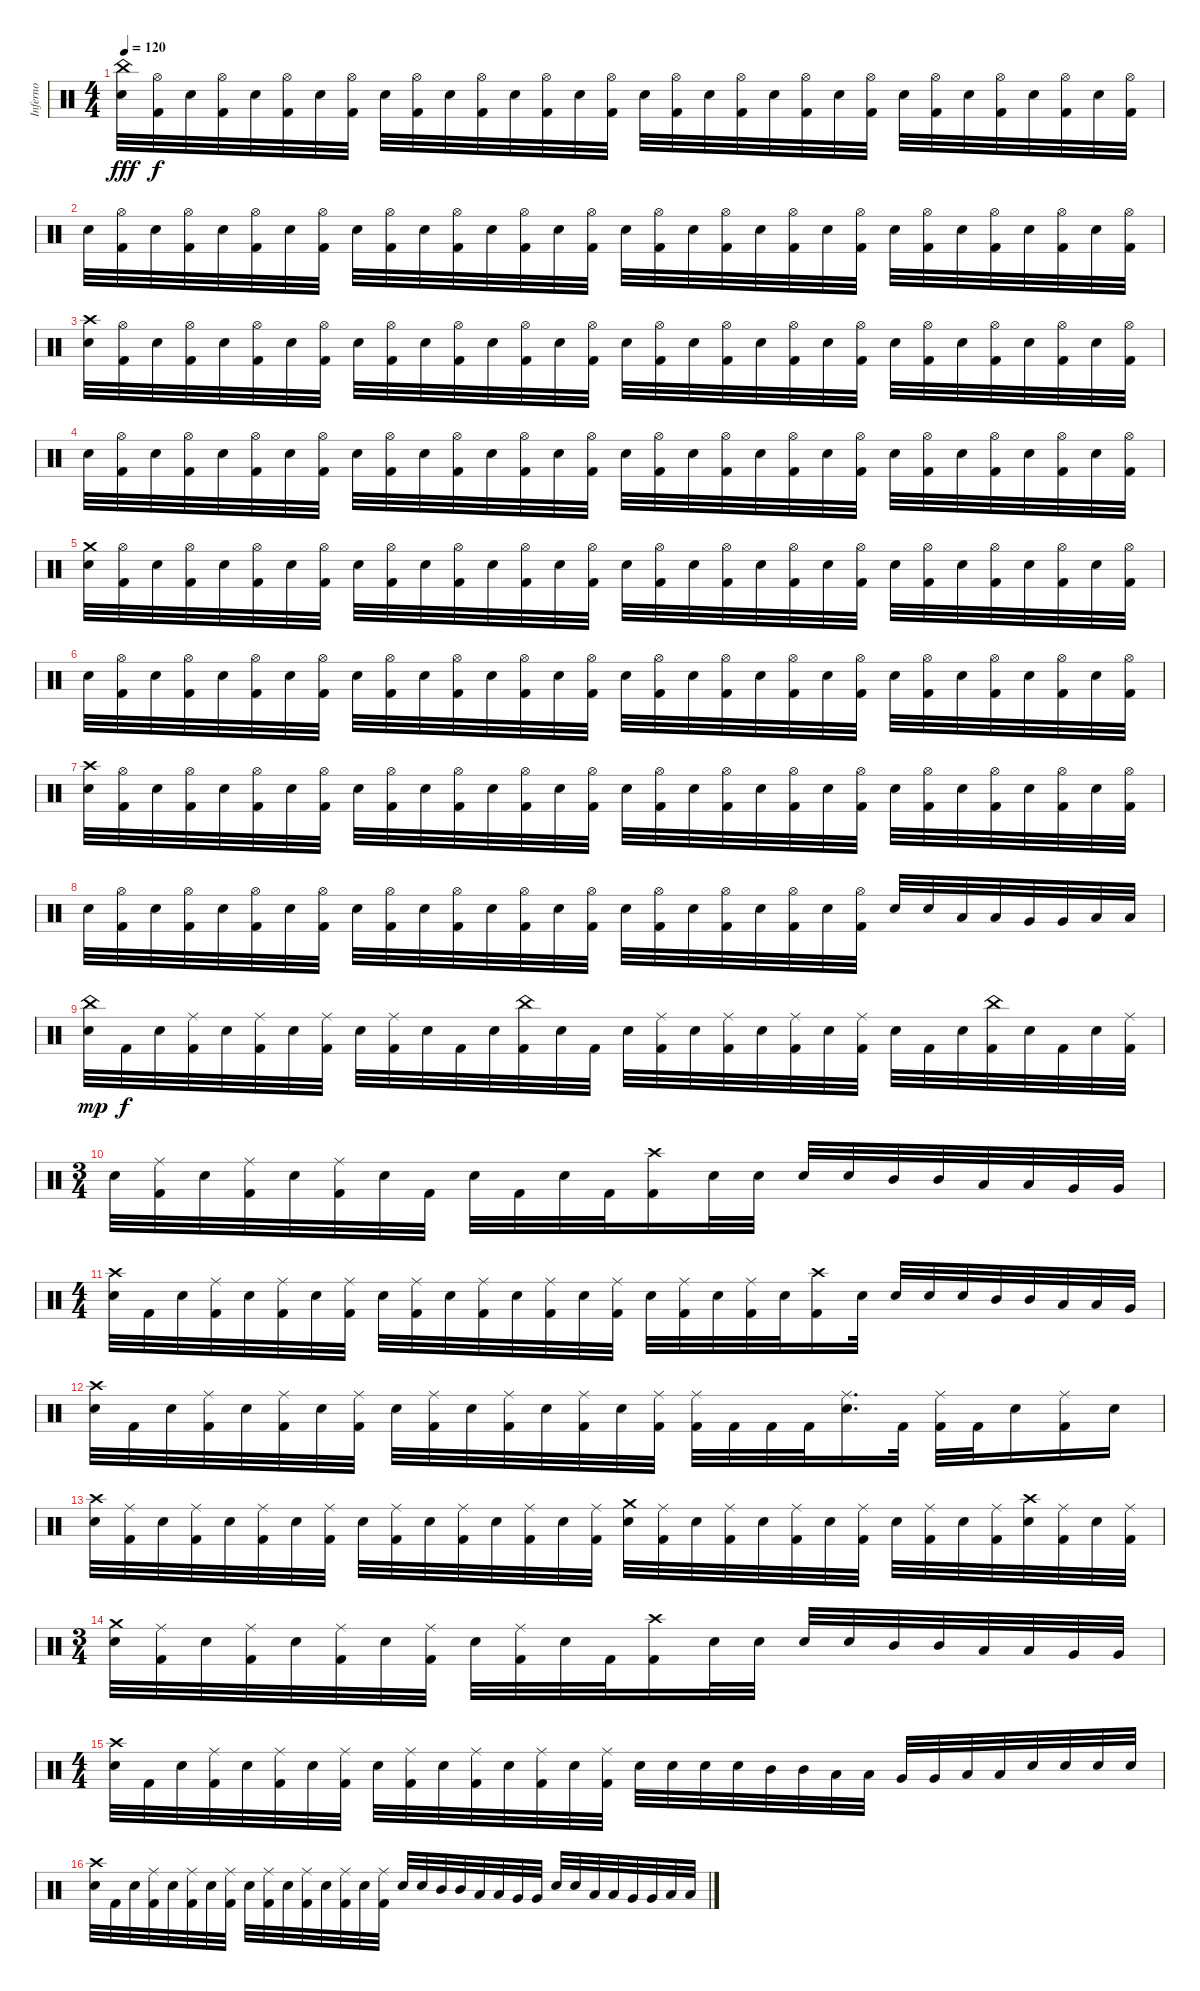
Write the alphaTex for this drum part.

\track ("Inferno" "Inferno") {instrument percussion}
\staff {score}
\articulation defaults
\ts (4 4)
\tempo 120
\clef neutral
\ks c
("China (hit)" "Electric Snare (hit)").32{dy fff} ("Hi-Hat (open)" "Kick (hit) 2").32{dy f} "Electric Snare (hit)".32 ("Hi-Hat (open)" "Kick (hit) 2").32 "Electric Snare (hit)".32 ("Hi-Hat (open)" "Kick (hit) 2").32 "Electric Snare (hit)".32 ("Hi-Hat (open)" "Kick (hit) 2").32 "Electric Snare (hit)".32 ("Hi-Hat (open)" "Kick (hit) 2").32 "Electric Snare (hit)".32 ("Hi-Hat (open)" "Kick (hit) 2").32 "Electric Snare (hit)".32 ("Hi-Hat (open)" "Kick (hit) 2").32 "Electric Snare (hit)".32 ("Hi-Hat (open)" "Kick (hit) 2").32 "Electric Snare (hit)".32 ("Hi-Hat (open)" "Kick (hit) 2").32 "Electric Snare (hit)".32 ("Hi-Hat (open)" "Kick (hit) 2").32 "Electric Snare (hit)".32 ("Hi-Hat (open)" "Kick (hit) 2").32 "Electric Snare (hit)".32 ("Hi-Hat (open)" "Kick (hit) 2").32 "Electric Snare (hit)".32 ("Hi-Hat (open)" "Kick (hit) 2").32 "Electric Snare (hit)".32 ("Hi-Hat (open)" "Kick (hit) 2").32 "Electric Snare (hit)".32 ("Hi-Hat (open)" "Kick (hit) 2").32 "Electric Snare (hit)".32 ("Hi-Hat (open)" "Kick (hit) 2").32 |
"Electric Snare (hit)".32 ("Hi-Hat (open)" "Kick (hit) 2").32 "Electric Snare (hit)".32 ("Hi-Hat (open)" "Kick (hit) 2").32 "Electric Snare (hit)".32 ("Hi-Hat (open)" "Kick (hit) 2").32 "Electric Snare (hit)".32 ("Hi-Hat (open)" "Kick (hit) 2").32 "Electric Snare (hit)".32 ("Hi-Hat (open)" "Kick (hit) 2").32 "Electric Snare (hit)".32 ("Hi-Hat (open)" "Kick (hit) 2").32 "Electric Snare (hit)".32 ("Hi-Hat (open)" "Kick (hit) 2").32 "Electric Snare (hit)".32 ("Hi-Hat (open)" "Kick (hit) 2").32 "Electric Snare (hit)".32 ("Hi-Hat (open)" "Kick (hit) 2").32 "Electric Snare (hit)".32 ("Hi-Hat (open)" "Kick (hit) 2").32 "Electric Snare (hit)".32 ("Hi-Hat (open)" "Kick (hit) 2").32 "Electric Snare (hit)".32 ("Hi-Hat (open)" "Kick (hit) 2").32 "Electric Snare (hit)".32 ("Hi-Hat (open)" "Kick (hit) 2").32 "Electric Snare (hit)".32 ("Hi-Hat (open)" "Kick (hit) 2").32 "Electric Snare (hit)".32 ("Hi-Hat (open)" "Kick (hit) 2").32 "Electric Snare (hit)".32 ("Hi-Hat (open)" "Kick (hit) 2").32 |
("Crash high (hit)" "Electric Snare (hit)").32 ("Hi-Hat (open)" "Kick (hit) 2").32 "Electric Snare (hit)".32 ("Hi-Hat (open)" "Kick (hit) 2").32 "Electric Snare (hit)".32 ("Hi-Hat (open)" "Kick (hit) 2").32 "Electric Snare (hit)".32 ("Hi-Hat (open)" "Kick (hit) 2").32 "Electric Snare (hit)".32 ("Hi-Hat (open)" "Kick (hit) 2").32 "Electric Snare (hit)".32 ("Hi-Hat (open)" "Kick (hit) 2").32 "Electric Snare (hit)".32 ("Hi-Hat (open)" "Kick (hit) 2").32 "Electric Snare (hit)".32 ("Hi-Hat (open)" "Kick (hit) 2").32 "Electric Snare (hit)".32 ("Hi-Hat (open)" "Kick (hit) 2").32 "Electric Snare (hit)".32 ("Hi-Hat (open)" "Kick (hit) 2").32 "Electric Snare (hit)".32 ("Hi-Hat (open)" "Kick (hit) 2").32 "Electric Snare (hit)".32 ("Hi-Hat (open)" "Kick (hit) 2").32 "Electric Snare (hit)".32 ("Hi-Hat (open)" "Kick (hit) 2").32 "Electric Snare (hit)".32 ("Hi-Hat (open)" "Kick (hit) 2").32 "Electric Snare (hit)".32 ("Hi-Hat (open)" "Kick (hit) 2").32 "Electric Snare (hit)".32 ("Hi-Hat (open)" "Kick (hit) 2").32 |
"Electric Snare (hit)".32 ("Hi-Hat (open)" "Kick (hit) 2").32 "Electric Snare (hit)".32 ("Hi-Hat (open)" "Kick (hit) 2").32 "Electric Snare (hit)".32 ("Hi-Hat (open)" "Kick (hit) 2").32 "Electric Snare (hit)".32 ("Hi-Hat (open)" "Kick (hit) 2").32 "Electric Snare (hit)".32 ("Hi-Hat (open)" "Kick (hit) 2").32 "Electric Snare (hit)".32 ("Hi-Hat (open)" "Kick (hit) 2").32 "Electric Snare (hit)".32 ("Hi-Hat (open)" "Kick (hit) 2").32 "Electric Snare (hit)".32 ("Hi-Hat (open)" "Kick (hit) 2").32 "Electric Snare (hit)".32 ("Hi-Hat (open)" "Kick (hit) 2").32 "Electric Snare (hit)".32 ("Hi-Hat (open)" "Kick (hit) 2").32 "Electric Snare (hit)".32 ("Hi-Hat (open)" "Kick (hit) 2").32 "Electric Snare (hit)".32 ("Hi-Hat (open)" "Kick (hit) 2").32 "Electric Snare (hit)".32 ("Hi-Hat (open)" "Kick (hit) 2").32 "Electric Snare (hit)".32 ("Hi-Hat (open)" "Kick (hit) 2").32 "Electric Snare (hit)".32 ("Hi-Hat (open)" "Kick (hit) 2").32 "Electric Snare (hit)".32 ("Hi-Hat (open)" "Kick (hit) 2").32 |
("Crash medium (hit)" "Electric Snare (hit)").32 ("Hi-Hat (open)" "Kick (hit) 2").32 "Electric Snare (hit)".32 ("Hi-Hat (open)" "Kick (hit) 2").32 "Electric Snare (hit)".32 ("Hi-Hat (open)" "Kick (hit) 2").32 "Electric Snare (hit)".32 ("Hi-Hat (open)" "Kick (hit) 2").32 "Electric Snare (hit)".32 ("Hi-Hat (open)" "Kick (hit) 2").32 "Electric Snare (hit)".32 ("Hi-Hat (open)" "Kick (hit) 2").32 "Electric Snare (hit)".32 ("Hi-Hat (open)" "Kick (hit) 2").32 "Electric Snare (hit)".32 ("Hi-Hat (open)" "Kick (hit) 2").32 "Electric Snare (hit)".32 ("Hi-Hat (open)" "Kick (hit) 2").32 "Electric Snare (hit)".32 ("Hi-Hat (open)" "Kick (hit) 2").32 "Electric Snare (hit)".32 ("Hi-Hat (open)" "Kick (hit) 2").32 "Electric Snare (hit)".32 ("Hi-Hat (open)" "Kick (hit) 2").32 "Electric Snare (hit)".32 ("Hi-Hat (open)" "Kick (hit) 2").32 "Electric Snare (hit)".32 ("Hi-Hat (open)" "Kick (hit) 2").32 "Electric Snare (hit)".32 ("Hi-Hat (open)" "Kick (hit) 2").32 "Electric Snare (hit)".32 ("Hi-Hat (open)" "Kick (hit) 2").32 |
"Electric Snare (hit)".32 ("Hi-Hat (open)" "Kick (hit) 2").32 "Electric Snare (hit)".32 ("Hi-Hat (open)" "Kick (hit) 2").32 "Electric Snare (hit)".32 ("Hi-Hat (open)" "Kick (hit) 2").32 "Electric Snare (hit)".32 ("Hi-Hat (open)" "Kick (hit) 2").32 "Electric Snare (hit)".32 ("Hi-Hat (open)" "Kick (hit) 2").32 "Electric Snare (hit)".32 ("Hi-Hat (open)" "Kick (hit) 2").32 "Electric Snare (hit)".32 ("Hi-Hat (open)" "Kick (hit) 2").32 "Electric Snare (hit)".32 ("Hi-Hat (open)" "Kick (hit) 2").32 "Electric Snare (hit)".32 ("Hi-Hat (open)" "Kick (hit) 2").32 "Electric Snare (hit)".32 ("Hi-Hat (open)" "Kick (hit) 2").32 "Electric Snare (hit)".32 ("Hi-Hat (open)" "Kick (hit) 2").32 "Electric Snare (hit)".32 ("Hi-Hat (open)" "Kick (hit) 2").32 "Electric Snare (hit)".32 ("Hi-Hat (open)" "Kick (hit) 2").32 "Electric Snare (hit)".32 ("Hi-Hat (open)" "Kick (hit) 2").32 "Electric Snare (hit)".32 ("Hi-Hat (open)" "Kick (hit) 2").32 "Electric Snare (hit)".32 ("Hi-Hat (open)" "Kick (hit) 2").32 |
("Crash high (hit)" "Electric Snare (hit)").32 ("Hi-Hat (open)" "Kick (hit) 2").32 "Electric Snare (hit)".32 ("Hi-Hat (open)" "Kick (hit) 2").32 "Electric Snare (hit)".32 ("Hi-Hat (open)" "Kick (hit) 2").32 "Electric Snare (hit)".32 ("Hi-Hat (open)" "Kick (hit) 2").32 "Electric Snare (hit)".32 ("Hi-Hat (open)" "Kick (hit) 2").32 "Electric Snare (hit)".32 ("Hi-Hat (open)" "Kick (hit) 2").32 "Electric Snare (hit)".32 ("Hi-Hat (open)" "Kick (hit) 2").32 "Electric Snare (hit)".32 ("Hi-Hat (open)" "Kick (hit) 2").32 "Electric Snare (hit)".32 ("Hi-Hat (open)" "Kick (hit) 2").32 "Electric Snare (hit)".32 ("Hi-Hat (open)" "Kick (hit) 2").32 "Electric Snare (hit)".32 ("Hi-Hat (open)" "Kick (hit) 2").32 "Electric Snare (hit)".32 ("Hi-Hat (open)" "Kick (hit) 2").32 "Electric Snare (hit)".32 ("Hi-Hat (open)" "Kick (hit) 2").32 "Electric Snare (hit)".32 ("Hi-Hat (open)" "Kick (hit) 2").32 "Electric Snare (hit)".32 ("Hi-Hat (open)" "Kick (hit) 2").32 "Electric Snare (hit)".32 ("Hi-Hat (open)" "Kick (hit) 2").32 |
"Electric Snare (hit)".32 ("Hi-Hat (open)" "Kick (hit) 2").32 "Electric Snare (hit)".32 ("Hi-Hat (open)" "Kick (hit) 2").32 "Electric Snare (hit)".32 ("Hi-Hat (open)" "Kick (hit) 2").32 "Electric Snare (hit)".32 ("Hi-Hat (open)" "Kick (hit) 2").32 "Electric Snare (hit)".32 ("Hi-Hat (open)" "Kick (hit) 2").32 "Electric Snare (hit)".32 ("Hi-Hat (open)" "Kick (hit) 2").32 "Electric Snare (hit)".32 ("Hi-Hat (open)" "Kick (hit) 2").32 "Electric Snare (hit)".32 ("Hi-Hat (open)" "Kick (hit) 2").32 "Electric Snare (hit)".32 ("Hi-Hat (open)" "Kick (hit) 2").32 "Electric Snare (hit)".32 ("Hi-Hat (open)" "Kick (hit) 2").32 "Electric Snare (hit)".32 ("Hi-Hat (open)" "Kick (hit) 2").32 "Electric Snare (hit)".32 ("Hi-Hat (open)" "Kick (hit) 2").32 "Electric Snare (hit)".32 "Electric Snare (hit)".32 "Low Tom (hit)".32 "Low Tom (hit)".32 "Very Low Tom (hit)".32 "Very Low Tom (hit)".32 "Low Floor Tom (hit)".32 "Low Floor Tom (hit)".32 |
("China (hit)" "Electric Snare (hit)").32{dy mp} "Kick (hit) 2".32{dy f} "Electric Snare (hit)".32 ("Ride (middle)" "Kick (hit) 2").32 "Electric Snare (hit)".32 ("Ride (middle)" "Kick (hit) 2").32 "Electric Snare (hit)".32 ("Ride (middle)" "Kick (hit) 2").32 "Electric Snare (hit)".32 ("Ride (middle)" "Kick (hit) 2").32 "Electric Snare (hit)".32 "Kick (hit) 2".32 "Electric Snare (hit)".32 ("China (hit)" "Kick (hit) 2").32 "Electric Snare (hit)".32 "Kick (hit) 2".32 "Electric Snare (hit)".32 ("Ride (middle)" "Kick (hit) 2").32 "Electric Snare (hit)".32 ("Ride (middle)" "Kick (hit) 2").32 "Electric Snare (hit)".32 ("Ride (middle)" "Kick (hit) 2").32 "Electric Snare (hit)".32 ("Ride (middle)" "Kick (hit) 2").32 "Electric Snare (hit)".32 "Kick (hit) 2".32 "Electric Snare (hit)".32 ("China (hit)" "Kick (hit) 2").32 "Electric Snare (hit)".32 "Kick (hit) 2".32 "Electric Snare (hit)".32 ("Ride (middle)" "Kick (hit) 2").32 |
\ts (3 4)
"Electric Snare (hit)".32 ("Ride (middle)" "Kick (hit) 2").32 "Electric Snare (hit)".32 ("Ride (middle)" "Kick (hit) 2").32 "Electric Snare (hit)".32 ("Ride (middle)" "Kick (hit) 2").32 "Electric Snare (hit)".32 "Kick (hit) 2".32 "Electric Snare (hit)".32 "Kick (hit) 2".32 "Electric Snare (hit)".32 "Kick (hit) 2".32 ("Crash high (hit)" "Kick (hit) 2").16 "Electric Snare (hit)".32 "Electric Snare (hit)".32 "Electric Snare (hit)".32 "Electric Snare (hit)".32 "Mid Tom (hit)".32 "Mid Tom (hit)".32 "Low Tom (hit)".32 "Low Tom (hit)".32 "Very Low Tom (hit)".32 "Very Low Tom (hit)".32 |
\ts (4 4)
("Crash high (hit)" "Electric Snare (hit)").32 "Kick (hit) 2".32 "Electric Snare (hit)".32 ("Ride (middle)" "Kick (hit) 2").32 "Electric Snare (hit)".32 ("Ride (middle)" "Kick (hit) 2").32 "Electric Snare (hit)".32 ("Ride (middle)" "Kick (hit) 2").32 "Electric Snare (hit)".32 ("Ride (middle)" "Kick (hit) 2").32 "Electric Snare (hit)".32 ("Ride (middle)" "Kick (hit) 2").32 "Electric Snare (hit)".32 ("Ride (middle)" "Kick (hit) 2").32 "Electric Snare (hit)".32 ("Ride (middle)" "Kick (hit) 2").32 "Electric Snare (hit)".32 ("Ride (middle)" "Kick (hit) 2").32 "Electric Snare (hit)".32 ("Ride (middle)" "Kick (hit) 2").32 "Electric Snare (hit)".32 ("Crash high (hit)" "Kick (hit) 2").16 "Electric Snare (hit)".32 "Electric Snare (hit)".32 "Electric Snare (hit)".32 "Electric Snare (hit)".32 "Mid Tom (hit)".32 "Mid Tom (hit)".32 "Low Tom (hit)".32 "Low Tom (hit)".32 "Very Low Tom (hit)".32 |
("Crash high (hit)" "Electric Snare (hit)").32 "Kick (hit) 2".32 "Electric Snare (hit)".32 ("Ride (middle)" "Kick (hit) 2").32 "Electric Snare (hit)".32 ("Ride (middle)" "Kick (hit) 2").32 "Electric Snare (hit)".32 ("Ride (middle)" "Kick (hit) 2").32 "Electric Snare (hit)".32 ("Ride (middle)" "Kick (hit) 2").32 "Electric Snare (hit)".32 ("Ride (middle)" "Kick (hit) 2").32 "Electric Snare (hit)".32 ("Ride (middle)" "Kick (hit) 2").32 "Electric Snare (hit)".32 ("Ride (middle)" "Kick (hit) 2").32 ("Ride (middle)" "Kick (hit) 2").32 "Kick (hit) 2".32 "Kick (hit) 2".32 "Kick (hit) 2".32 ("Ride (middle)" "Electric Snare (hit)").16{d} "Kick (hit) 2".32 ("Ride (middle)" "Kick (hit) 2").32 "Kick (hit) 2".32 "Electric Snare (hit)".16 ("Ride (middle)" "Kick (hit) 2").16 "Electric Snare (hit)".16 |
("Crash high (hit)" "Electric Snare (hit)").32 ("Ride (middle)" "Kick (hit) 2").32 "Electric Snare (hit)".32 ("Ride (middle)" "Kick (hit) 2").32 "Electric Snare (hit)".32 ("Ride (middle)" "Kick (hit) 2").32 "Electric Snare (hit)".32 ("Ride (middle)" "Kick (hit) 2").32 "Electric Snare (hit)".32 ("Ride (middle)" "Kick (hit) 2").32 "Electric Snare (hit)".32 ("Ride (middle)" "Kick (hit) 2").32 "Electric Snare (hit)".32 ("Ride (middle)" "Kick (hit) 2").32 "Electric Snare (hit)".32 ("Ride (middle)" "Kick (hit) 2").32 ("Crash medium (hit)" "Electric Snare (hit)").32 ("Ride (middle)" "Kick (hit) 2").32 "Electric Snare (hit)".32 ("Ride (middle)" "Kick (hit) 2").32 "Electric Snare (hit)".32 ("Ride (middle)" "Kick (hit) 2").32 "Electric Snare (hit)".32 ("Ride (middle)" "Kick (hit) 2").32 "Electric Snare (hit)".32 ("Ride (middle)" "Kick (hit) 2").32 "Electric Snare (hit)".32 ("Ride (middle)" "Kick (hit) 2").32 ("Crash high (hit)" "Electric Snare (hit)").32 ("Ride (middle)" "Kick (hit) 2").32 "Electric Snare (hit)".32 ("Ride (middle)" "Kick (hit) 2").32 |
\ts (3 4)
("Crash medium (hit)" "Electric Snare (hit)").32 ("Ride (middle)" "Kick (hit) 2").32 "Electric Snare (hit)".32 ("Ride (middle)" "Kick (hit) 2").32 "Electric Snare (hit)".32 ("Ride (middle)" "Kick (hit) 2").32 "Electric Snare (hit)".32 ("Ride (middle)" "Kick (hit) 2").32 "Electric Snare (hit)".32 ("Ride (middle)" "Kick (hit) 2").32 "Electric Snare (hit)".32 "Kick (hit) 2".32 ("Crash high (hit)" "Kick (hit) 2").16 "Electric Snare (hit)".32 "Electric Snare (hit)".32 "Electric Snare (hit)".32 "Electric Snare (hit)".32 "Mid Tom (hit)".32 "Mid Tom (hit)".32 "Low Tom (hit)".32 "Low Tom (hit)".32 "Very Low Tom (hit)".32 "Very Low Tom (hit)".32 |
\ts (4 4)
("Crash high (hit)" "Electric Snare (hit)").32 "Kick (hit) 2".32 "Electric Snare (hit)".32 ("Ride (middle)" "Kick (hit) 2").32 "Electric Snare (hit)".32 ("Ride (middle)" "Kick (hit) 2").32 "Electric Snare (hit)".32 ("Ride (middle)" "Kick (hit) 2").32 "Electric Snare (hit)".32 ("Ride (middle)" "Kick (hit) 2").32 "Electric Snare (hit)".32 ("Ride (middle)" "Kick (hit) 2").32 "Electric Snare (hit)".32 ("Ride (middle)" "Kick (hit) 2").32 "Electric Snare (hit)".32 ("Ride (middle)" "Kick (hit) 2").32 "Electric Snare (hit)".32 "Electric Snare (hit)".32 "Electric Snare (hit)".32 "Electric Snare (hit)".32 "Mid Tom (hit)".32 "Mid Tom (hit)".32 "Low Tom (hit)".32 "Low Tom (hit)".32 "Very Low Tom (hit)".32 "Very Low Tom (hit)".32 "Low Floor Tom (hit)".32 "Low Floor Tom (hit)".32 "Electric Snare (hit)".32 "Electric Snare (hit)".32 "Electric Snare (hit)".32 "Electric Snare (hit)".32 |
("Crash high (hit)" "Electric Snare (hit)").32 "Kick (hit) 2".32 "Electric Snare (hit)".32 ("Ride (middle)" "Kick (hit) 2").32 "Electric Snare (hit)".32 ("Ride (middle)" "Kick (hit) 2").32 "Electric Snare (hit)".32 ("Ride (middle)" "Kick (hit) 2").32 "Electric Snare (hit)".32 ("Ride (middle)" "Kick (hit) 2").32 "Electric Snare (hit)".32 ("Ride (middle)" "Kick (hit) 2").32 "Electric Snare (hit)".32 ("Ride (middle)" "Kick (hit) 2").32 "Electric Snare (hit)".32 ("Ride (middle)" "Kick (hit) 2").32 "Electric Snare (hit)".32 "Electric Snare (hit)".32 "Mid Tom (hit)".32 "Mid Tom (hit)".32 "Low Tom (hit)".32 "Low Tom (hit)".32 "Very Low Tom (hit)".32 "Very Low Tom (hit)".32 "Electric Snare (hit)".32 "Electric Snare (hit)".32 "Low Tom (hit)".32 "Low Tom (hit)".32 "Very Low Tom (hit)".32 "Very Low Tom (hit)".32 "Low Floor Tom (hit)".32 "Low Floor Tom (hit)".32
